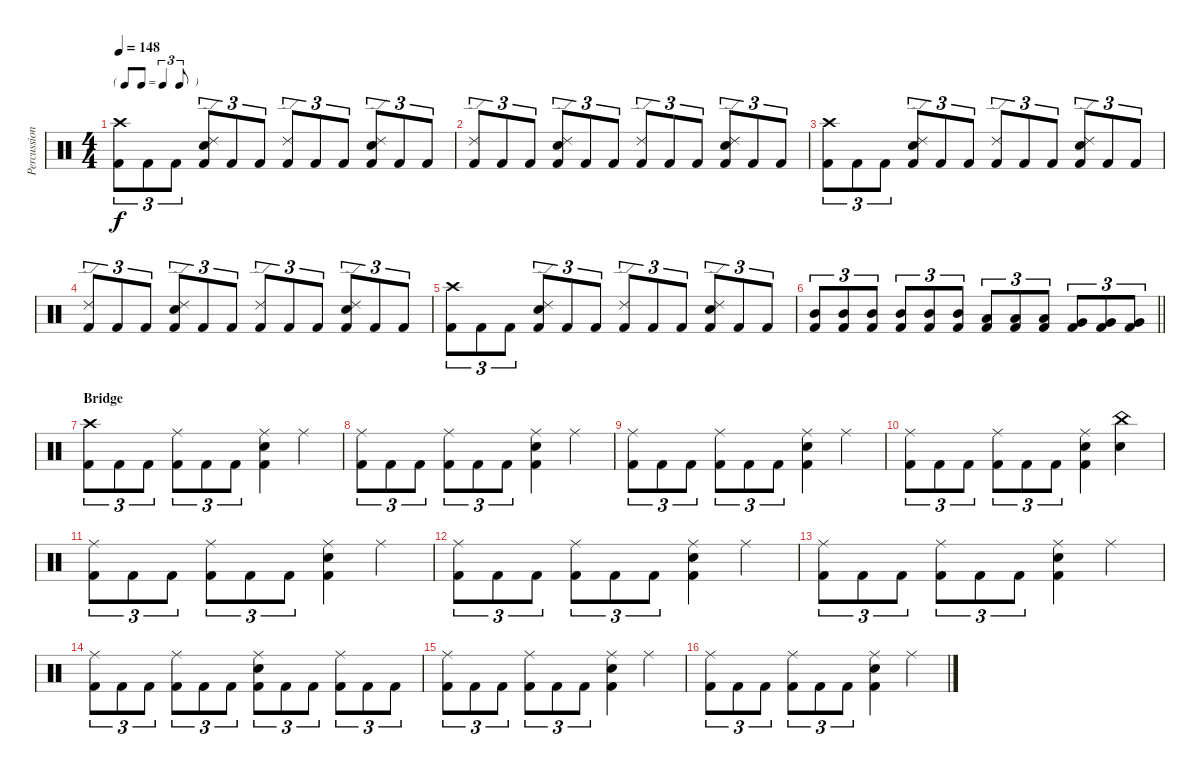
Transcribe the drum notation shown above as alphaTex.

\track ("Percussion" "Percussion") {instrument percussion}
\staff {score}
\articulation defaults
\ts (4 4)
\tf triplet8th
\tempo 148
\clef neutral
\ks c
("Crash high (hit)" "Kick (hit) 2").8{tu (3 2) dy f} "Kick (hit) 2".8{tu (3 2)} "Kick (hit) 2".8{tu (3 2)} ("Ride (edge) 2" "Snare (hit) 2" "Kick (hit) 2").8{tu (3 2)} "Kick (hit) 2".8{tu (3 2)} "Kick (hit) 2".8{tu (3 2)} ("Ride (edge) 2" "Kick (hit) 2").8{tu (3 2)} "Kick (hit) 2".8{tu (3 2)} "Kick (hit) 2".8{tu (3 2)} ("Ride (edge) 2" "Snare (hit) 2" "Kick (hit) 2").8{tu (3 2)} "Kick (hit) 2".8{tu (3 2)} "Kick (hit) 2".8{tu (3 2)} |
("Ride (edge) 2" "Kick (hit) 2").8{tu (3 2)} "Kick (hit) 2".8{tu (3 2)} "Kick (hit) 2".8{tu (3 2)} ("Ride (edge) 2" "Snare (hit) 2" "Kick (hit) 2").8{tu (3 2)} "Kick (hit) 2".8{tu (3 2)} "Kick (hit) 2".8{tu (3 2)} ("Ride (edge) 2" "Kick (hit) 2").8{tu (3 2)} "Kick (hit) 2".8{tu (3 2)} "Kick (hit) 2".8{tu (3 2)} ("Ride (edge) 2" "Snare (hit) 2" "Kick (hit) 2").8{tu (3 2)} "Kick (hit) 2".8{tu (3 2)} "Kick (hit) 2".8{tu (3 2)} |
("Crash high (hit)" "Kick (hit) 2").8{tu (3 2)} "Kick (hit) 2".8{tu (3 2)} "Kick (hit) 2".8{tu (3 2)} ("Ride (edge) 2" "Snare (hit) 2" "Kick (hit) 2").8{tu (3 2)} "Kick (hit) 2".8{tu (3 2)} "Kick (hit) 2".8{tu (3 2)} ("Ride (edge) 2" "Kick (hit) 2").8{tu (3 2)} "Kick (hit) 2".8{tu (3 2)} "Kick (hit) 2".8{tu (3 2)} ("Ride (edge) 2" "Snare (hit) 2" "Kick (hit) 2").8{tu (3 2)} "Kick (hit) 2".8{tu (3 2)} "Kick (hit) 2".8{tu (3 2)} |
("Ride (edge) 2" "Kick (hit) 2").8{tu (3 2)} "Kick (hit) 2".8{tu (3 2)} "Kick (hit) 2".8{tu (3 2)} ("Ride (edge) 2" "Snare (hit) 2" "Kick (hit) 2").8{tu (3 2)} "Kick (hit) 2".8{tu (3 2)} "Kick (hit) 2".8{tu (3 2)} ("Ride (edge) 2" "Kick (hit) 2").8{tu (3 2)} "Kick (hit) 2".8{tu (3 2)} "Kick (hit) 2".8{tu (3 2)} ("Ride (edge) 2" "Snare (hit) 2" "Kick (hit) 2").8{tu (3 2)} "Kick (hit) 2".8{tu (3 2)} "Kick (hit) 2".8{tu (3 2)} |
("Crash high (hit)" "Kick (hit) 2").8{tu (3 2)} "Kick (hit) 2".8{tu (3 2)} "Kick (hit) 2".8{tu (3 2)} ("Ride (edge) 2" "Snare (hit) 2" "Kick (hit) 2").8{tu (3 2)} "Kick (hit) 2".8{tu (3 2)} "Kick (hit) 2".8{tu (3 2)} ("Ride (edge) 2" "Kick (hit) 2").8{tu (3 2)} "Kick (hit) 2".8{tu (3 2)} "Kick (hit) 2".8{tu (3 2)} ("Ride (edge) 2" "Snare (hit) 2" "Kick (hit) 2").8{tu (3 2)} "Kick (hit) 2".8{tu (3 2)} "Kick (hit) 2".8{tu (3 2)} |
\barLineRight lightlight
("Mid Tom (hit)" "Kick (hit) 2").8{tu (3 2)} ("Mid Tom (hit)" "Kick (hit) 2").8{tu (3 2)} ("Mid Tom (hit)" "Kick (hit) 2").8{tu (3 2)} ("Mid Tom (hit)" "Kick (hit) 2").8{tu (3 2)} ("Mid Tom (hit)" "Kick (hit) 2").8{tu (3 2)} ("Mid Tom (hit)" "Kick (hit) 2").8{tu (3 2)} ("Low Tom (hit)" "Kick (hit) 2").8{tu (3 2)} ("Low Tom (hit)" "Kick (hit) 2").8{tu (3 2)} ("Low Tom (hit)" "Kick (hit) 2").8{tu (3 2)} ("Very Low Tom (hit)" "Kick (hit) 2").8{tu (3 2)} ("Very Low Tom (hit)" "Kick (hit) 2").8{tu (3 2)} ("Very Low Tom (hit)" "Kick (hit) 2").8{tu (3 2)} |
\section ("" "Bridge")
("Crash high (hit)" "Kick (hit) 2").8{tu (3 2)} "Kick (hit) 2".8{tu (3 2)} "Kick (hit) 2".8{tu (3 2)} ("Ride (middle)" "Kick (hit) 2").8{tu (3 2)} "Kick (hit) 2".8{tu (3 2)} "Kick (hit) 2".8{tu (3 2)} ("Ride (middle)" "Snare (hit) 2" "Kick (hit) 2").4 "Ride (middle)".4 |
("Ride (middle)" "Kick (hit) 2").8{tu (3 2)} "Kick (hit) 2".8{tu (3 2)} "Kick (hit) 2".8{tu (3 2)} ("Ride (middle)" "Kick (hit) 2").8{tu (3 2)} "Kick (hit) 2".8{tu (3 2)} "Kick (hit) 2".8{tu (3 2)} ("Ride (middle)" "Snare (hit) 2" "Kick (hit) 2").4 "Ride (middle)".4 |
("Ride (middle)" "Kick (hit) 2").8{tu (3 2)} "Kick (hit) 2".8{tu (3 2)} "Kick (hit) 2".8{tu (3 2)} ("Ride (middle)" "Kick (hit) 2").8{tu (3 2)} "Kick (hit) 2".8{tu (3 2)} "Kick (hit) 2".8{tu (3 2)} ("Ride (middle)" "Snare (hit) 2" "Kick (hit) 2").4 "Ride (middle)".4 |
("Ride (middle)" "Kick (hit) 2").8{tu (3 2)} "Kick (hit) 2".8{tu (3 2)} "Kick (hit) 2".8{tu (3 2)} ("Ride (middle)" "Kick (hit) 2").8{tu (3 2)} "Kick (hit) 2".8{tu (3 2)} "Kick (hit) 2".8{tu (3 2)} ("Ride (middle)" "Snare (hit) 2" "Kick (hit) 2").4 ("China (hit)" "Snare (hit) 2").4 |
("Ride (middle)" "Kick (hit) 2").8{tu (3 2)} "Kick (hit) 2".8{tu (3 2)} "Kick (hit) 2".8{tu (3 2)} ("Ride (middle)" "Kick (hit) 2").8{tu (3 2)} "Kick (hit) 2".8{tu (3 2)} "Kick (hit) 2".8{tu (3 2)} ("Ride (middle)" "Snare (hit) 2" "Kick (hit) 2").4 "Ride (middle)".4 |
("Ride (middle)" "Kick (hit) 2").8{tu (3 2)} "Kick (hit) 2".8{tu (3 2)} "Kick (hit) 2".8{tu (3 2)} ("Ride (middle)" "Kick (hit) 2").8{tu (3 2)} "Kick (hit) 2".8{tu (3 2)} "Kick (hit) 2".8{tu (3 2)} ("Ride (middle)" "Snare (hit) 2" "Kick (hit) 2").4 "Ride (middle)".4 |
("Ride (middle)" "Kick (hit) 2").8{tu (3 2)} "Kick (hit) 2".8{tu (3 2)} "Kick (hit) 2".8{tu (3 2)} ("Ride (middle)" "Kick (hit) 2").8{tu (3 2)} "Kick (hit) 2".8{tu (3 2)} "Kick (hit) 2".8{tu (3 2)} ("Ride (middle)" "Snare (hit) 2" "Kick (hit) 2").4 "Ride (middle)".4 |
("Ride (middle)" "Kick (hit) 2").8{tu (3 2)} "Kick (hit) 2".8{tu (3 2)} "Kick (hit) 2".8{tu (3 2)} ("Ride (middle)" "Kick (hit) 2").8{tu (3 2)} "Kick (hit) 2".8{tu (3 2)} "Kick (hit) 2".8{tu (3 2)} ("Ride (middle)" "Snare (hit) 2" "Kick (hit) 2").8{tu (3 2)} "Kick (hit) 2".8{tu (3 2)} "Kick (hit) 2".8{tu (3 2)} ("Ride (middle)" "Kick (hit) 2").8{tu (3 2)} "Kick (hit) 2".8{tu (3 2)} "Kick (hit) 2".8{tu (3 2)} |
("Ride (middle)" "Kick (hit) 2").8{tu (3 2)} "Kick (hit) 2".8{tu (3 2)} "Kick (hit) 2".8{tu (3 2)} ("Ride (middle)" "Kick (hit) 2").8{tu (3 2)} "Kick (hit) 2".8{tu (3 2)} "Kick (hit) 2".8{tu (3 2)} ("Ride (middle)" "Snare (hit) 2" "Kick (hit) 2").4 "Ride (middle)".4 |
("Ride (middle)" "Kick (hit) 2").8{tu (3 2)} "Kick (hit) 2".8{tu (3 2)} "Kick (hit) 2".8{tu (3 2)} ("Ride (middle)" "Kick (hit) 2").8{tu (3 2)} "Kick (hit) 2".8{tu (3 2)} "Kick (hit) 2".8{tu (3 2)} ("Ride (middle)" "Snare (hit) 2" "Kick (hit) 2").4 "Ride (middle)".4
